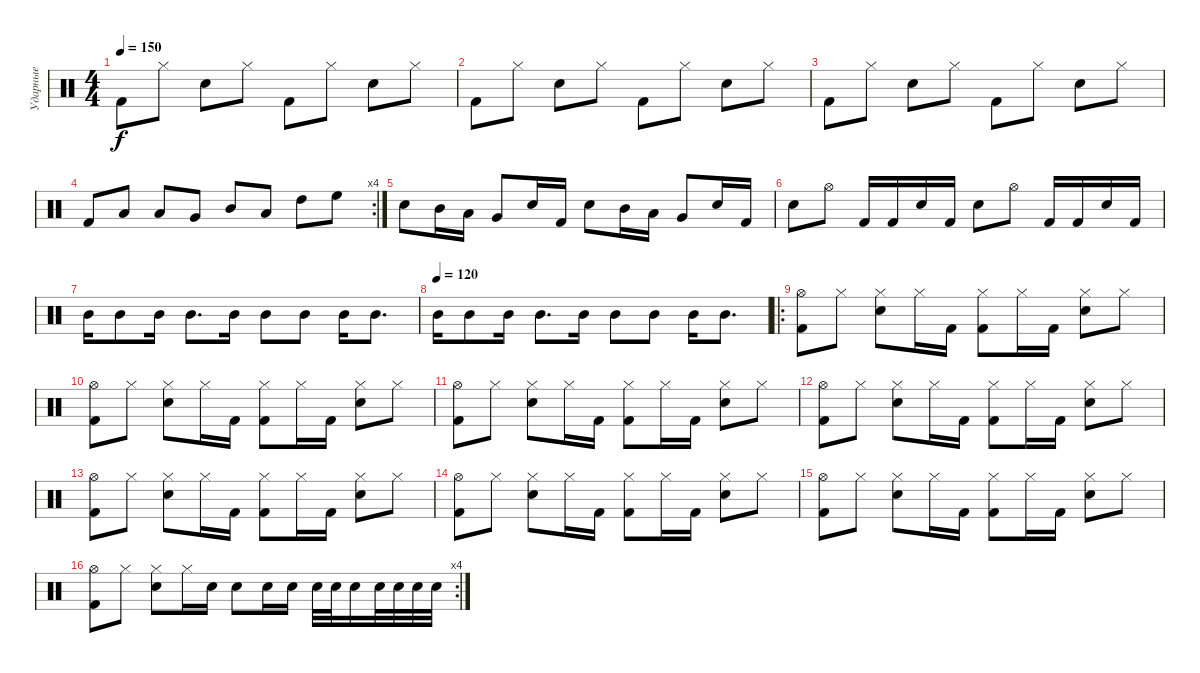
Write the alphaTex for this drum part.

\track ("Ударные" "Ударные") {instrument percussion}
\staff {score}
\articulation defaults
\ts (4 4)
\tempo 150
\clef neutral
\ks c "Kick (hit) 2".8{dy f} "Hi-Hat (closed)".8 "Electric Snare (hit)".8 "Hi-Hat (closed)".8 "Kick (hit) 2".8 "Hi-Hat (closed)".8 "Electric Snare (hit)".8 "Hi-Hat (closed)".8
|
"Kick (hit) 2".8 "Hi-Hat (closed)".8 "Electric Snare (hit)".8 "Hi-Hat (closed)".8 "Kick (hit) 2".8 "Hi-Hat (closed)".8 "Electric Snare (hit)".8 "Hi-Hat (closed)".8 |
"Kick (hit) 2".8 "Hi-Hat (closed)".8 "Electric Snare (hit)".8 "Hi-Hat (closed)".8 "Kick (hit) 2".8 "Hi-Hat (closed)".8 "Electric Snare (hit)".8 "Hi-Hat (closed)".8 |
\rc 4 "Kick (hit) 2".8 "Low Floor Tom (hit)".8 "Low Tom (hit)".8 "Very Low Tom (hit)".8 "Mid Tom (hit)".8 "Low Tom (hit)".8 "High Tom (hit)".8 "High Floor Tom (hit)".8
|
"Electric Snare (hit)".8 "Mid Tom (hit)".16 "Low Tom (hit)".16 "Very Low Tom (hit)".8 "Electric Snare (hit)".16 "Kick (hit) 2".16 "Electric Snare (hit)".8 "Mid Tom (hit)".16 "Low Tom (hit)".16 "Very Low Tom (hit)".8 "Electric Snare (hit)".16 "Kick (hit) 2".16 |
"Electric Snare (hit)".8 "Hi-Hat (open)".8 "Kick (hit) 2".16 "Kick (hit) 2".16 "Electric Snare (hit)".16 "Kick (hit) 2".16 "Electric Snare (hit)".8 "Hi-Hat (open)".8 "Kick (hit) 2".16 "Kick (hit) 2".16 "Electric Snare (hit)".16 "Kick (hit) 2".16 |
"Mid Tom (hit)".16 "Mid Tom (hit)".8 "Mid Tom (hit)".16 "Mid Tom (hit)".8{d} "Mid Tom (hit)".16 "Mid Tom (hit)".8 "Mid Tom (hit)".8 "Mid Tom (hit)".16 "Mid Tom (hit)".8{d} |
\tempo (120)
"Mid Tom (hit)".16 "Mid Tom (hit)".8 "Mid Tom (hit)".16 "Mid Tom (hit)".8{d} "Mid Tom (hit)".16 "Mid Tom (hit)".8 "Mid Tom (hit)".8 "Mid Tom (hit)".16 "Mid Tom (hit)".8{d} |
\ro
\ks aminor
("Hi-Hat (open)" "Kick (hit) 2").8 "Hi-Hat (closed)".8 ("Hi-Hat (closed)" "Electric Snare (hit)").8 "Hi-Hat (closed)".16 "Kick (hit) 2".16 ("Hi-Hat (closed)" "Kick (hit) 2").8 "Hi-Hat (closed)".16 "Kick (hit) 2".16 ("Hi-Hat (closed)" "Electric Snare (hit)").8 "Hi-Hat (closed)".8 |
("Hi-Hat (open)" "Kick (hit) 2").8 "Hi-Hat (closed)".8 ("Hi-Hat (closed)" "Electric Snare (hit)").8 "Hi-Hat (closed)".16 "Kick (hit) 2".16 ("Hi-Hat (closed)" "Kick (hit) 2").8 "Hi-Hat (closed)".16 "Kick (hit) 2".16 ("Hi-Hat (closed)" "Electric Snare (hit)").8 "Hi-Hat (closed)".8 |
("Hi-Hat (open)" "Kick (hit) 2").8 "Hi-Hat (closed)".8 ("Hi-Hat (closed)" "Electric Snare (hit)").8 "Hi-Hat (closed)".16 "Kick (hit) 2".16 ("Hi-Hat (closed)" "Kick (hit) 2").8 "Hi-Hat (closed)".16 "Kick (hit) 2".16 ("Hi-Hat (closed)" "Electric Snare (hit)").8 "Hi-Hat (closed)".8 |
("Hi-Hat (open)" "Kick (hit) 2").8 "Hi-Hat (closed)".8 ("Hi-Hat (closed)" "Electric Snare (hit)").8 "Hi-Hat (closed)".16 "Kick (hit) 2".16 ("Hi-Hat (closed)" "Kick (hit) 2").8 "Hi-Hat (closed)".16 "Kick (hit) 2".16 ("Hi-Hat (closed)" "Electric Snare (hit)").8 "Hi-Hat (closed)".8 |
("Hi-Hat (open)" "Kick (hit) 2").8 "Hi-Hat (closed)".8 ("Hi-Hat (closed)" "Electric Snare (hit)").8 "Hi-Hat (closed)".16 "Kick (hit) 2".16 ("Hi-Hat (closed)" "Kick (hit) 2").8 "Hi-Hat (closed)".16 "Kick (hit) 2".16 ("Hi-Hat (closed)" "Electric Snare (hit)").8 "Hi-Hat (closed)".8 |
("Hi-Hat (open)" "Kick (hit) 2").8 "Hi-Hat (closed)".8 ("Hi-Hat (closed)" "Electric Snare (hit)").8 "Hi-Hat (closed)".16 "Kick (hit) 2".16 ("Hi-Hat (closed)" "Kick (hit) 2").8 "Hi-Hat (closed)".16 "Kick (hit) 2".16 ("Hi-Hat (closed)" "Electric Snare (hit)").8 "Hi-Hat (closed)".8 |
("Hi-Hat (open)" "Kick (hit) 2").8 "Hi-Hat (closed)".8 ("Hi-Hat (closed)" "Electric Snare (hit)").8 "Hi-Hat (closed)".16 "Kick (hit) 2".16 ("Hi-Hat (closed)" "Kick (hit) 2").8 "Hi-Hat (closed)".16 "Kick (hit) 2".16 ("Hi-Hat (closed)" "Electric Snare (hit)").8 "Hi-Hat (closed)".8 |
\rc 4
("Hi-Hat (open)" "Kick (hit) 2").8 "Hi-Hat (closed)".8 ("Hi-Hat (closed)" "Electric Snare (hit)").8 "Hi-Hat (closed)".16 "Electric Snare (hit)".16 "Electric Snare (hit)".8 "Electric Snare (hit)".16 "Electric Snare (hit)".16 "Electric Snare (hit)".32 "Electric Snare (hit)".32 "Electric Snare (hit)".16 "Electric Snare (hit)".32 "Electric Snare (hit)".32 "Electric Snare (hit)".32 "Electric Snare (hit)".32
